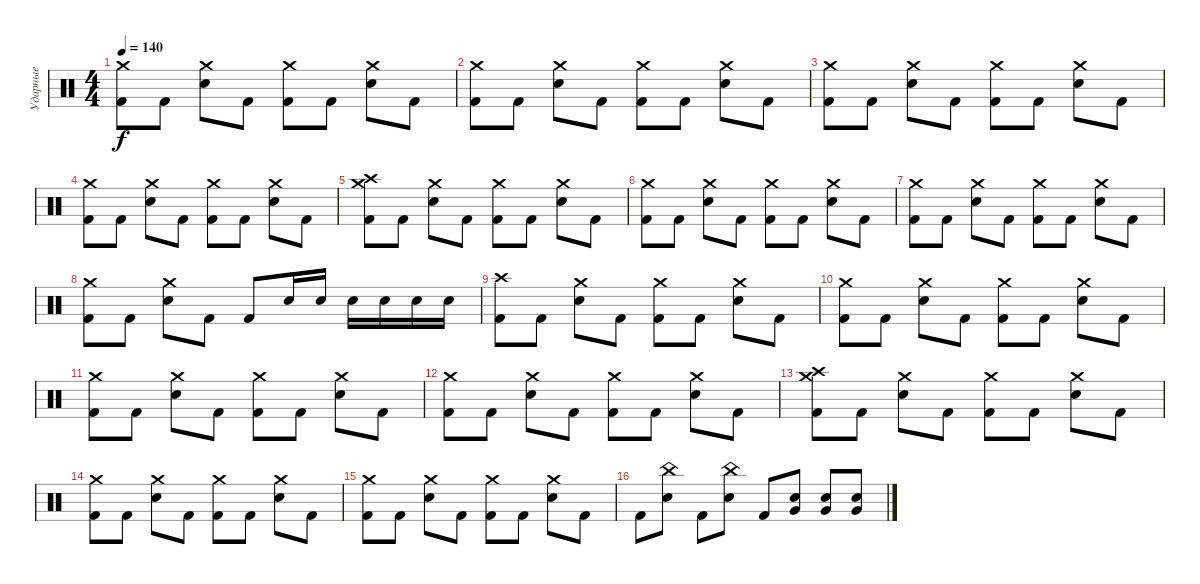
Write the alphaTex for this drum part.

\track ("Ударные" "Ударные") {instrument percussion}
\staff {score}
\articulation defaults
\ts (4 4)
\tempo 140
\clef neutral
\ks c
("Crash medium (hit)" "Kick (hit) 2").8{dy f} "Kick (hit) 2".8 ("Electric Snare (hit)" "Crash medium (hit)").8 "Kick (hit) 2".8 ("Kick (hit) 2" "Crash medium (hit)").8 "Kick (hit) 2".8 ("Electric Snare (hit)" "Crash medium (hit)").8 "Kick (hit) 2".8 |
("Crash medium (hit)" "Kick (hit) 2").8 "Kick (hit) 2".8 ("Electric Snare (hit)" "Crash medium (hit)").8 "Kick (hit) 2".8 ("Kick (hit) 2" "Crash medium (hit)").8 "Kick (hit) 2".8 ("Electric Snare (hit)" "Crash medium (hit)").8 "Kick (hit) 2".8 |
("Crash medium (hit)" "Kick (hit) 2").8 "Kick (hit) 2".8 ("Electric Snare (hit)" "Crash medium (hit)").8 "Kick (hit) 2".8 ("Kick (hit) 2" "Crash medium (hit)").8 "Kick (hit) 2".8 ("Electric Snare (hit)" "Crash medium (hit)").8 "Kick (hit) 2".8 |
("Crash medium (hit)" "Kick (hit) 2").8 "Kick (hit) 2".8 ("Electric Snare (hit)" "Crash medium (hit)").8 "Kick (hit) 2".8 ("Kick (hit) 2" "Crash medium (hit)").8 "Kick (hit) 2".8 ("Electric Snare (hit)" "Crash medium (hit)").8 "Kick (hit) 2".8 |
("Crash medium (hit)" "Crash high (hit)" "Kick (hit) 2").8 "Kick (hit) 2".8 ("Electric Snare (hit)" "Crash medium (hit)").8 "Kick (hit) 2".8 ("Kick (hit) 2" "Crash medium (hit)").8 "Kick (hit) 2".8 ("Electric Snare (hit)" "Crash medium (hit)").8 "Kick (hit) 2".8 |
("Crash medium (hit)" "Kick (hit) 2").8 "Kick (hit) 2".8 ("Electric Snare (hit)" "Crash medium (hit)").8 "Kick (hit) 2".8 ("Kick (hit) 2" "Crash medium (hit)").8 "Kick (hit) 2".8 ("Electric Snare (hit)" "Crash medium (hit)").8 "Kick (hit) 2".8 |
("Crash medium (hit)" "Kick (hit) 2").8 "Kick (hit) 2".8 ("Electric Snare (hit)" "Crash medium (hit)").8 "Kick (hit) 2".8 ("Kick (hit) 2" "Crash medium (hit)").8 "Kick (hit) 2".8 ("Electric Snare (hit)" "Crash medium (hit)").8 "Kick (hit) 2".8 |
("Crash medium (hit)" "Kick (hit) 2").8 "Kick (hit) 2".8 ("Electric Snare (hit)" "Crash medium (hit)").8 "Kick (hit) 2".8 "Kick (hit) 2".8 "Electric Snare (hit)".16 "Electric Snare (hit)".16 "Electric Snare (hit)".16 "Electric Snare (hit)".16 "Electric Snare (hit)".16 "Electric Snare (hit)".16 |
("Crash high (hit)" "Kick (hit) 2").8 "Kick (hit) 2".8 ("Electric Snare (hit)" "Crash medium (hit)").8 "Kick (hit) 2".8 ("Kick (hit) 2" "Crash medium (hit)").8 "Kick (hit) 2".8 ("Electric Snare (hit)" "Crash medium (hit)").8 "Kick (hit) 2".8 |
("Crash medium (hit)" "Kick (hit) 2").8 "Kick (hit) 2".8 ("Electric Snare (hit)" "Crash medium (hit)").8 "Kick (hit) 2".8 ("Kick (hit) 2" "Crash medium (hit)").8 "Kick (hit) 2".8 ("Electric Snare (hit)" "Crash medium (hit)").8 "Kick (hit) 2".8 |
("Crash medium (hit)" "Kick (hit) 2").8 "Kick (hit) 2".8 ("Electric Snare (hit)" "Crash medium (hit)").8 "Kick (hit) 2".8 ("Kick (hit) 2" "Crash medium (hit)").8 "Kick (hit) 2".8 ("Electric Snare (hit)" "Crash medium (hit)").8 "Kick (hit) 2".8 |
("Crash medium (hit)" "Kick (hit) 2").8 "Kick (hit) 2".8 ("Electric Snare (hit)" "Crash medium (hit)").8 "Kick (hit) 2".8 ("Kick (hit) 2" "Crash medium (hit)").8 "Kick (hit) 2".8 ("Electric Snare (hit)" "Crash medium (hit)").8 "Kick (hit) 2".8 |
("Crash medium (hit)" "Crash high (hit)" "Kick (hit) 2").8 "Kick (hit) 2".8 ("Electric Snare (hit)" "Crash medium (hit)").8 "Kick (hit) 2".8 ("Kick (hit) 2" "Crash medium (hit)").8 "Kick (hit) 2".8 ("Electric Snare (hit)" "Crash medium (hit)").8 "Kick (hit) 2".8 |
("Crash medium (hit)" "Kick (hit) 2").8 "Kick (hit) 2".8 ("Electric Snare (hit)" "Crash medium (hit)").8 "Kick (hit) 2".8 ("Kick (hit) 2" "Crash medium (hit)").8 "Kick (hit) 2".8 ("Electric Snare (hit)" "Crash medium (hit)").8 "Kick (hit) 2".8 |
("Crash medium (hit)" "Kick (hit) 2").8 "Kick (hit) 2".8 ("Electric Snare (hit)" "Crash medium (hit)").8 "Kick (hit) 2".8 ("Kick (hit) 2" "Crash medium (hit)").8 "Kick (hit) 2".8 ("Electric Snare (hit)" "Crash medium (hit)").8 "Kick (hit) 2".8 |
"Kick (hit) 2".8 ("China (hit)" "Electric Snare (hit)").8 "Kick (hit) 2".8 ("China (hit)" "Electric Snare (hit)").8 "Kick (hit) 2".8 ("Electric Snare (hit)" "Very Low Tom (hit)").8 ("Electric Snare (hit)" "Very Low Tom (hit)").8 ("Electric Snare (hit)" "Very Low Tom (hit)").8
